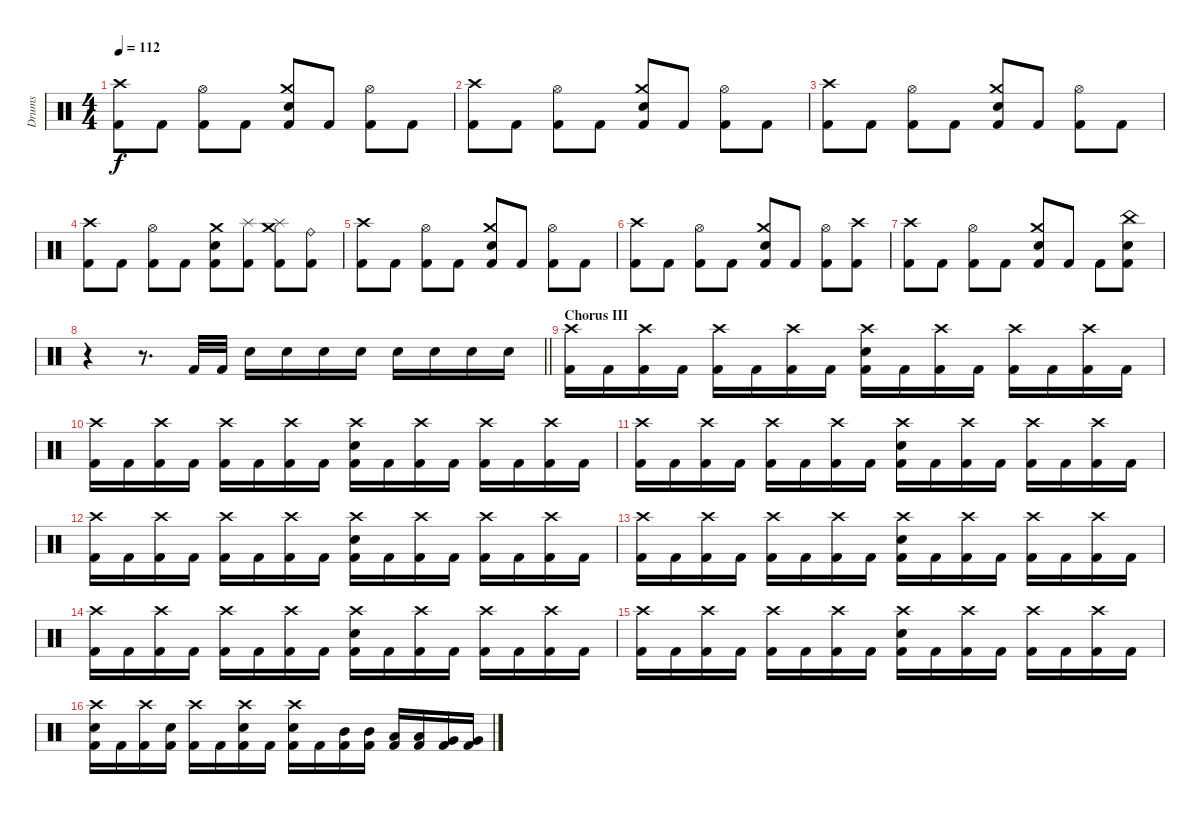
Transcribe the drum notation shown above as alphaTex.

\track ("Drums" "Drums") {instrument percussion}
\staff {score}
\articulation defaults
\ts (4 4)
\tempo 112
\clef neutral
\ks c
("Crash high (hit)" "Kick (hit) 2").8{dy f} "Kick (hit) 2".8 ("Kick (hit) 2" "Hi-Hat (open)").8 "Kick (hit) 2".8 ("Kick (hit) 2" "Crash medium (hit)" "Snare (hit) 2").8 "Kick (hit) 2".8 ("Kick (hit) 2" "Hi-Hat (open)").8 "Kick (hit) 2".8 |
("Crash high (hit)" "Kick (hit) 2").8 "Kick (hit) 2".8 ("Kick (hit) 2" "Hi-Hat (open)").8 "Kick (hit) 2".8 ("Kick (hit) 2" "Crash medium (hit)" "Snare (hit) 2").8 "Kick (hit) 2".8 ("Kick (hit) 2" "Hi-Hat (open)").8 "Kick (hit) 2".8 |
("Crash high (hit)" "Kick (hit) 2").8 "Kick (hit) 2".8 ("Kick (hit) 2" "Hi-Hat (open)").8 "Kick (hit) 2".8 ("Kick (hit) 2" "Crash medium (hit)" "Snare (hit) 2").8 "Kick (hit) 2".8 ("Kick (hit) 2" "Hi-Hat (open)").8 "Kick (hit) 2".8 |
("Crash high (hit)" "Kick (hit) 2").8 "Kick (hit) 2".8 ("Kick (hit) 2" "Hi-Hat (open)").8 "Kick (hit) 2".8 ("Kick (hit) 2" "Crash medium (hit)" "Snare (hit) 2").8 ("Kick (hit) 2" "Splash (hit)").8 ("Kick (hit) 2" "Crash medium (hit)" "Splash (hit)").8 ("Kick (hit) 2" "Ride (bell)").8 |
("Crash high (hit)" "Kick (hit) 2").8 "Kick (hit) 2".8 ("Kick (hit) 2" "Hi-Hat (open)").8 "Kick (hit) 2".8 ("Kick (hit) 2" "Crash medium (hit)" "Snare (hit) 2").8 "Kick (hit) 2".8 ("Kick (hit) 2" "Hi-Hat (open)").8 "Kick (hit) 2".8 |
("Crash high (hit)" "Kick (hit) 2").8 "Kick (hit) 2".8 ("Kick (hit) 2" "Hi-Hat (open)").8 "Kick (hit) 2".8 ("Kick (hit) 2" "Crash medium (hit)" "Snare (hit) 2").8 "Kick (hit) 2".8 ("Kick (hit) 2" "Hi-Hat (open)").8 ("Crash high (hit)" "Kick (hit) 2").8 |
("Crash high (hit)" "Kick (hit) 2").8 "Kick (hit) 2".8 ("Kick (hit) 2" "Hi-Hat (open)").8 "Kick (hit) 2".8 ("Kick (hit) 2" "Crash medium (hit)" "Snare (hit) 2").8 "Kick (hit) 2".8 "Kick (hit) 2".8 ("Kick (hit) 2" "China (hit)" "Snare (hit) 2").8 |
\barLineRight lightlight
r.4 r.8{d} "Kick (hit) 2".32 "Kick (hit) 2".32 "Snare (hit) 2".16 "Snare (hit) 2".16 "Snare (hit) 2".16 "Snare (hit) 2".16 "Snare (hit) 2".16 "Snare (hit) 2".16 "Snare (hit) 2".16 "Snare (hit) 2".16 |
\section ("" "Chorus III")
("Crash high (hit)" "Kick (hit) 2").16 "Kick (hit) 2".16 ("Kick (hit) 2" "Crash high (hit)").16 "Kick (hit) 2".16 ("Crash high (hit)" "Kick (hit) 2").16 "Kick (hit) 2".16 ("Kick (hit) 2" "Crash high (hit)").16 "Kick (hit) 2".16 ("Crash high (hit)" "Kick (hit) 2" "Snare (hit) 2").16 "Kick (hit) 2".16 ("Kick (hit) 2" "Crash high (hit)").16 "Kick (hit) 2".16 ("Crash high (hit)" "Kick (hit) 2").16 "Kick (hit) 2".16 ("Kick (hit) 2" "Crash high (hit)").16 "Kick (hit) 2".16 |
("Crash high (hit)" "Kick (hit) 2").16 "Kick (hit) 2".16 ("Kick (hit) 2" "Crash high (hit)").16 "Kick (hit) 2".16 ("Crash high (hit)" "Kick (hit) 2").16 "Kick (hit) 2".16 ("Kick (hit) 2" "Crash high (hit)").16 "Kick (hit) 2".16 ("Crash high (hit)" "Kick (hit) 2" "Snare (hit) 2").16 "Kick (hit) 2".16 ("Kick (hit) 2" "Crash high (hit)").16 "Kick (hit) 2".16 ("Crash high (hit)" "Kick (hit) 2").16 "Kick (hit) 2".16 ("Kick (hit) 2" "Crash high (hit)").16 "Kick (hit) 2".16 |
("Crash high (hit)" "Kick (hit) 2").16 "Kick (hit) 2".16 ("Kick (hit) 2" "Crash high (hit)").16 "Kick (hit) 2".16 ("Crash high (hit)" "Kick (hit) 2").16 "Kick (hit) 2".16 ("Kick (hit) 2" "Crash high (hit)").16 "Kick (hit) 2".16 ("Crash high (hit)" "Kick (hit) 2" "Snare (hit) 2").16 "Kick (hit) 2".16 ("Kick (hit) 2" "Crash high (hit)").16 "Kick (hit) 2".16 ("Crash high (hit)" "Kick (hit) 2").16 "Kick (hit) 2".16 ("Kick (hit) 2" "Crash high (hit)").16 "Kick (hit) 2".16 |
("Crash high (hit)" "Kick (hit) 2").16 "Kick (hit) 2".16 ("Kick (hit) 2" "Crash high (hit)").16 "Kick (hit) 2".16 ("Crash high (hit)" "Kick (hit) 2").16 "Kick (hit) 2".16 ("Kick (hit) 2" "Crash high (hit)").16 "Kick (hit) 2".16 ("Crash high (hit)" "Kick (hit) 2" "Snare (hit) 2").16 "Kick (hit) 2".16 ("Kick (hit) 2" "Crash high (hit)").16 "Kick (hit) 2".16 ("Crash high (hit)" "Kick (hit) 2").16 "Kick (hit) 2".16 ("Kick (hit) 2" "Crash high (hit)").16 "Kick (hit) 2".16 |
("Crash high (hit)" "Kick (hit) 2").16 "Kick (hit) 2".16 ("Kick (hit) 2" "Crash high (hit)").16 "Kick (hit) 2".16 ("Crash high (hit)" "Kick (hit) 2").16 "Kick (hit) 2".16 ("Kick (hit) 2" "Crash high (hit)").16 "Kick (hit) 2".16 ("Crash high (hit)" "Kick (hit) 2" "Snare (hit) 2").16 "Kick (hit) 2".16 ("Kick (hit) 2" "Crash high (hit)").16 "Kick (hit) 2".16 ("Crash high (hit)" "Kick (hit) 2").16 "Kick (hit) 2".16 ("Kick (hit) 2" "Crash high (hit)").16 "Kick (hit) 2".16 |
("Crash high (hit)" "Kick (hit) 2").16 "Kick (hit) 2".16 ("Kick (hit) 2" "Crash high (hit)").16 "Kick (hit) 2".16 ("Crash high (hit)" "Kick (hit) 2").16 "Kick (hit) 2".16 ("Kick (hit) 2" "Crash high (hit)").16 "Kick (hit) 2".16 ("Crash high (hit)" "Kick (hit) 2" "Snare (hit) 2").16 "Kick (hit) 2".16 ("Kick (hit) 2" "Crash high (hit)").16 "Kick (hit) 2".16 ("Crash high (hit)" "Kick (hit) 2").16 "Kick (hit) 2".16 ("Kick (hit) 2" "Crash high (hit)").16 "Kick (hit) 2".16 |
("Crash high (hit)" "Kick (hit) 2").16 "Kick (hit) 2".16 ("Kick (hit) 2" "Crash high (hit)").16 "Kick (hit) 2".16 ("Crash high (hit)" "Kick (hit) 2").16 "Kick (hit) 2".16 ("Kick (hit) 2" "Crash high (hit)").16 "Kick (hit) 2".16 ("Crash high (hit)" "Kick (hit) 2" "Snare (hit) 2").16 "Kick (hit) 2".16 ("Kick (hit) 2" "Crash high (hit)").16 "Kick (hit) 2".16 ("Crash high (hit)" "Kick (hit) 2").16 "Kick (hit) 2".16 ("Kick (hit) 2" "Crash high (hit)").16 "Kick (hit) 2".16 |
("Crash high (hit)" "Kick (hit) 2" "Snare (hit) 2").16 "Kick (hit) 2".16 ("Kick (hit) 2" "Crash high (hit)").16 ("Kick (hit) 2" "Snare (hit) 2").16 ("Crash high (hit)" "Kick (hit) 2").16 "Kick (hit) 2".16 ("Kick (hit) 2" "Crash high (hit)" "Snare (hit) 2").16 "Kick (hit) 2".16 ("Crash high (hit)" "Kick (hit) 2" "Snare (hit) 2").16 "Kick (hit) 2".16 ("Kick (hit) 2" "Mid Tom (hit)").16 ("Kick (hit) 2" "Mid Tom (hit)").16 ("Low Tom (hit)" "Kick (hit) 2").16 ("Kick (hit) 2" "Low Tom (hit)").16 ("Kick (hit) 2" "Very Low Tom (hit)").16 ("Kick (hit) 2" "Very Low Tom (hit)").16
